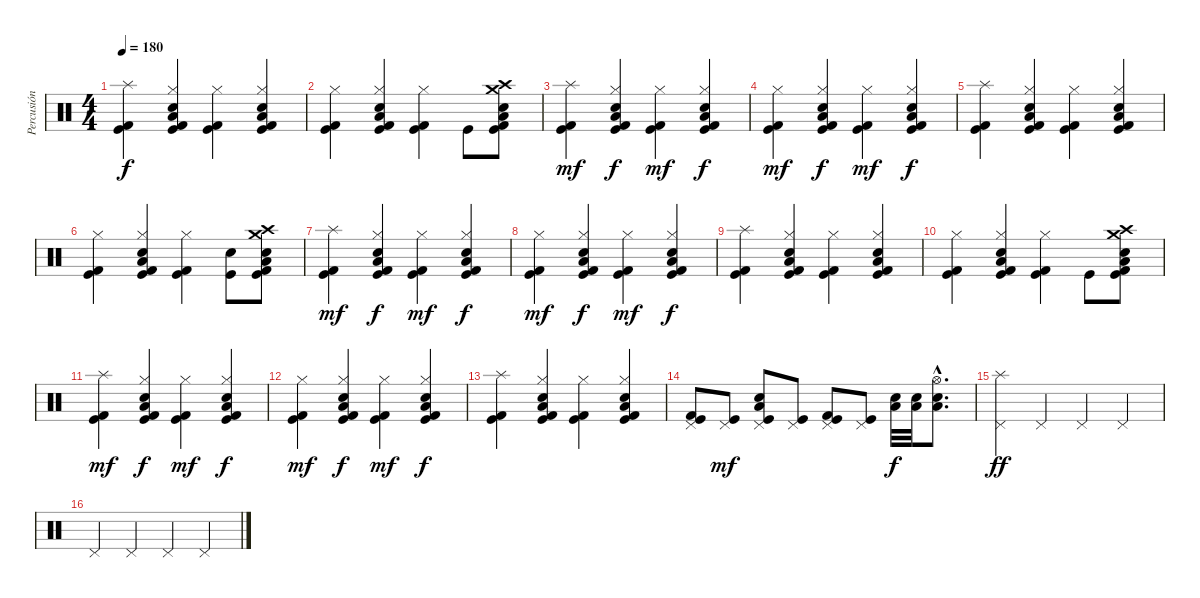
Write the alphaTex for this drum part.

\track ("Percusión" "Percusión") {instrument percussion}
\staff {score}
\articulation defaults
\ts (4 4)
\tempo 180
\clef neutral
\ks c
("Splash (hit)" "Kick (hit) 2" "Kick (hit)").4{dy f} ("Hi-Hat (closed)" "Electric Snare (hit)" "Low Tom (hit)" "Kick (hit) 2" "Kick (hit)").4 ("Hi-Hat (closed)" "Kick (hit) 2" "Kick (hit)").4 ("Hi-Hat (closed)" "Electric Snare (hit)" "Low Tom (hit)" "Kick (hit) 2" "Kick (hit)").4 |
("Hi-Hat (closed)" "Kick (hit) 2" "Kick (hit)").4 ("Hi-Hat (closed)" "Electric Snare (hit)" "Low Tom (hit)" "Kick (hit) 2" "Kick (hit)").4 ("Hi-Hat (closed)" "Kick (hit) 2" "Kick (hit)").4 "Kick (hit)".8 ("Crash high (hit)" "Electric Snare (hit)" "Low Tom (hit)" "Crash medium (hit)" "Kick (hit) 2" "Kick (hit)").8 |
("Splash (hit)" "Kick (hit) 2" "Kick (hit)").4{dy mf} ("Hi-Hat (closed)" "Electric Snare (hit)" "Low Tom (hit)" "Kick (hit) 2" "Kick (hit)").4{dy f} ("Hi-Hat (closed)" "Kick (hit) 2" "Kick (hit)").4{dy mf} ("Hi-Hat (closed)" "Electric Snare (hit)" "Low Tom (hit)" "Kick (hit) 2" "Kick (hit)").4{dy f} |
("Hi-Hat (closed)" "Kick (hit) 2" "Kick (hit)").4{dy mf} ("Hi-Hat (closed)" "Electric Snare (hit)" "Low Tom (hit)" "Kick (hit) 2" "Kick (hit)").4{dy f} ("Hi-Hat (closed)" "Kick (hit) 2" "Kick (hit)").4{dy mf} ("Hi-Hat (closed)" "Electric Snare (hit)" "Low Tom (hit)" "Kick (hit) 2" "Kick (hit)").4{dy f} |
("Splash (hit)" "Kick (hit) 2" "Kick (hit)").4 ("Hi-Hat (closed)" "Electric Snare (hit)" "Low Tom (hit)" "Kick (hit) 2" "Kick (hit)").4 ("Hi-Hat (closed)" "Kick (hit) 2" "Kick (hit)").4 ("Hi-Hat (closed)" "Electric Snare (hit)" "Low Tom (hit)" "Kick (hit) 2" "Kick (hit)").4 |
("Hi-Hat (closed)" "Kick (hit) 2" "Kick (hit)").4 ("Hi-Hat (closed)" "Electric Snare (hit)" "Low Tom (hit)" "Kick (hit) 2" "Kick (hit)").4 ("Hi-Hat (closed)" "Kick (hit) 2" "Kick (hit)").4 ("Electric Snare (hit)" "Kick (hit)").8 ("Crash high (hit)" "Electric Snare (hit)" "Low Tom (hit)" "Crash medium (hit)" "Kick (hit) 2" "Kick (hit)").8 |
("Splash (hit)" "Kick (hit) 2" "Kick (hit)").4{dy mf} ("Hi-Hat (closed)" "Electric Snare (hit)" "Low Tom (hit)" "Kick (hit) 2" "Kick (hit)").4{dy f} ("Hi-Hat (closed)" "Kick (hit) 2" "Kick (hit)").4{dy mf} ("Hi-Hat (closed)" "Electric Snare (hit)" "Low Tom (hit)" "Kick (hit) 2" "Kick (hit)").4{dy f} |
("Hi-Hat (closed)" "Kick (hit) 2" "Kick (hit)").4{dy mf} ("Hi-Hat (closed)" "Electric Snare (hit)" "Low Tom (hit)" "Kick (hit) 2" "Kick (hit)").4{dy f} ("Hi-Hat (closed)" "Kick (hit) 2" "Kick (hit)").4{dy mf} ("Hi-Hat (closed)" "Electric Snare (hit)" "Low Tom (hit)" "Kick (hit) 2" "Kick (hit)").4{dy f} |
("Splash (hit)" "Kick (hit) 2" "Kick (hit)").4 ("Hi-Hat (closed)" "Electric Snare (hit)" "Low Tom (hit)" "Kick (hit) 2" "Kick (hit)").4 ("Hi-Hat (closed)" "Kick (hit) 2" "Kick (hit)").4 ("Hi-Hat (closed)" "Electric Snare (hit)" "Low Tom (hit)" "Kick (hit) 2" "Kick (hit)").4 |
("Hi-Hat (closed)" "Kick (hit) 2" "Kick (hit)").4 ("Hi-Hat (closed)" "Electric Snare (hit)" "Low Tom (hit)" "Kick (hit) 2" "Kick (hit)").4 ("Hi-Hat (closed)" "Kick (hit) 2" "Kick (hit)").4 "Kick (hit)".8 ("Crash high (hit)" "Electric Snare (hit)" "Low Tom (hit)" "Crash medium (hit)" "Kick (hit) 2" "Kick (hit)").8 |
("Splash (hit)" "Kick (hit) 2" "Kick (hit)").4{dy mf} ("Hi-Hat (closed)" "Electric Snare (hit)" "Low Tom (hit)" "Kick (hit) 2" "Kick (hit)").4{dy f} ("Hi-Hat (closed)" "Kick (hit) 2" "Kick (hit)").4{dy mf} ("Hi-Hat (closed)" "Electric Snare (hit)" "Low Tom (hit)" "Kick (hit) 2" "Kick (hit)").4{dy f} |
("Hi-Hat (closed)" "Kick (hit) 2" "Kick (hit)").4{dy mf} ("Hi-Hat (closed)" "Electric Snare (hit)" "Low Tom (hit)" "Kick (hit) 2" "Kick (hit)").4{dy f} ("Hi-Hat (closed)" "Kick (hit) 2" "Kick (hit)").4{dy mf} ("Hi-Hat (closed)" "Electric Snare (hit)" "Low Tom (hit)" "Kick (hit) 2" "Kick (hit)").4{dy f} |
("Splash (hit)" "Kick (hit) 2" "Kick (hit)").4 ("Hi-Hat (closed)" "Electric Snare (hit)" "Low Tom (hit)" "Kick (hit) 2" "Kick (hit)").4 ("Hi-Hat (closed)" "Kick (hit) 2" "Kick (hit)").4 ("Hi-Hat (closed)" "Electric Snare (hit)" "Low Tom (hit)" "Kick (hit) 2" "Kick (hit)").4 |
("Pedal Hi-Hat (hit)" "Kick (hit) 2" "Kick (hit)").8 ("Pedal Hi-Hat (hit)" "Kick (hit)").8{dy mf} ("Pedal Hi-Hat (hit)" "Electric Snare (hit)" "Low Tom (hit)" "Kick (hit)").8 ("Pedal Hi-Hat (hit)" "Kick (hit)").8 ("Pedal Hi-Hat (hit)" "Kick (hit) 2" "Kick (hit)").8 ("Pedal Hi-Hat (hit)" "Kick (hit)").8 ("Electric Snare (hit)" "Low Tom (hit)").32{dy f} ("Electric Snare (hit)" "Low Tom (hit)").32 ("Hi-Hat (open)"{hac} "Electric Snare (hit)"{hac} "Low Tom (hit)"{hac}).8{d} |
("Splash (hit)" "Pedal Hi-Hat (hit)").4{dy ff} "Pedal Hi-Hat (hit)".4 "Pedal Hi-Hat (hit)".4 "Pedal Hi-Hat (hit)".4 |
"Pedal Hi-Hat (hit)".4 "Pedal Hi-Hat (hit)".4 "Pedal Hi-Hat (hit)".4 "Pedal Hi-Hat (hit)".4
